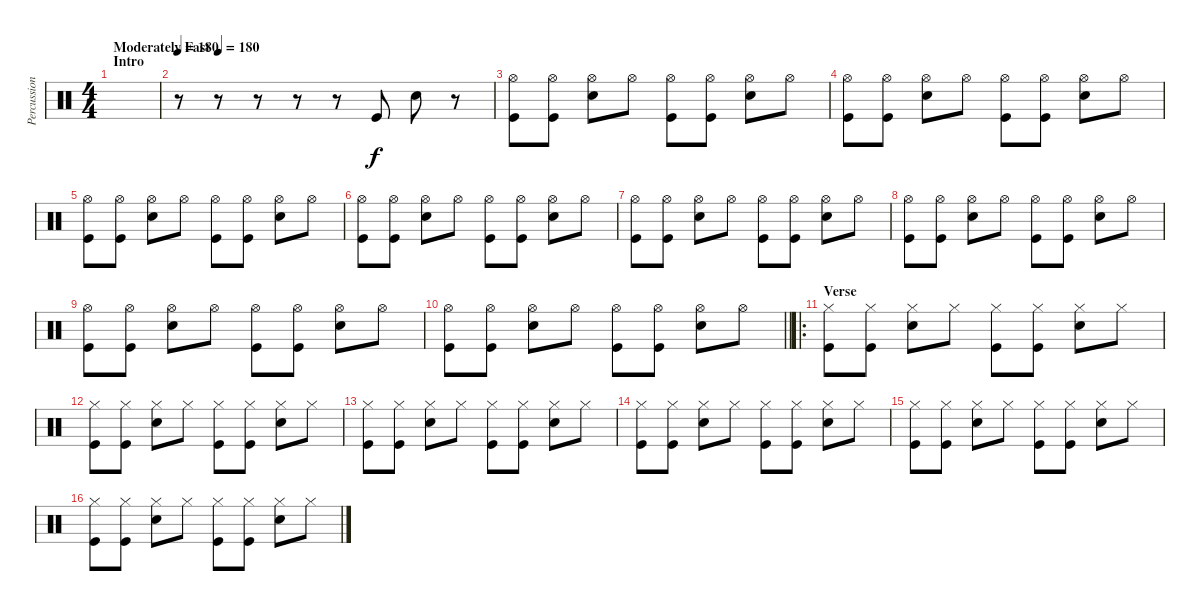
\track ("Percussion" "Percussion") {instrument percussion}
\staff {score}
\articulation defaults
\ts (4 4)
\section ("" "Intro")
\tempo (180 "Moderately Fast")
\tempo 160
\tempo (180 "Moderately Fast")
\clef neutral
\ks c
|
\tempo 180
r.8 r.8 r.8 r.8 r.8 "Kick (hit)".8 "Snare (hit) 2".8 r.8 |
("Hi-Hat (open)" "Kick (hit)").8 ("Hi-Hat (open)" "Kick (hit)").8 ("Hi-Hat (open)" "Snare (hit) 2").8 "Hi-Hat (open)".8 ("Hi-Hat (open)" "Kick (hit)").8 ("Hi-Hat (open)" "Kick (hit)").8 ("Hi-Hat (open)" "Snare (hit) 2").8 "Hi-Hat (open)".8 |
("Hi-Hat (open)" "Kick (hit)").8 ("Hi-Hat (open)" "Kick (hit)").8 ("Hi-Hat (open)" "Snare (hit) 2").8 "Hi-Hat (open)".8 ("Hi-Hat (open)" "Kick (hit)").8 ("Hi-Hat (open)" "Kick (hit)").8 ("Hi-Hat (open)" "Snare (hit) 2").8 "Hi-Hat (open)".8 |
("Hi-Hat (open)" "Kick (hit)").8 ("Hi-Hat (open)" "Kick (hit)").8 ("Hi-Hat (open)" "Snare (hit) 2").8 "Hi-Hat (open)".8 ("Hi-Hat (open)" "Kick (hit)").8 ("Hi-Hat (open)" "Kick (hit)").8 ("Hi-Hat (open)" "Snare (hit) 2").8 "Hi-Hat (open)".8 |
("Hi-Hat (open)" "Kick (hit)").8 ("Hi-Hat (open)" "Kick (hit)").8 ("Hi-Hat (open)" "Snare (hit) 2").8 "Hi-Hat (open)".8 ("Hi-Hat (open)" "Kick (hit)").8 ("Hi-Hat (open)" "Kick (hit)").8 ("Hi-Hat (open)" "Snare (hit) 2").8 "Hi-Hat (open)".8 |
("Hi-Hat (open)" "Kick (hit)").8 ("Hi-Hat (open)" "Kick (hit)").8 ("Hi-Hat (open)" "Snare (hit) 2").8 "Hi-Hat (open)".8 ("Hi-Hat (open)" "Kick (hit)").8 ("Hi-Hat (open)" "Kick (hit)").8 ("Hi-Hat (open)" "Snare (hit) 2").8 "Hi-Hat (open)".8 |
("Hi-Hat (open)" "Kick (hit)").8 ("Hi-Hat (open)" "Kick (hit)").8 ("Hi-Hat (open)" "Snare (hit) 2").8 "Hi-Hat (open)".8 ("Hi-Hat (open)" "Kick (hit)").8 ("Hi-Hat (open)" "Kick (hit)").8 ("Hi-Hat (open)" "Snare (hit) 2").8 "Hi-Hat (open)".8 |
("Hi-Hat (open)" "Kick (hit)").8 ("Hi-Hat (open)" "Kick (hit)").8 ("Hi-Hat (open)" "Snare (hit) 2").8 "Hi-Hat (open)".8 ("Hi-Hat (open)" "Kick (hit)").8 ("Hi-Hat (open)" "Kick (hit)").8 ("Hi-Hat (open)" "Snare (hit) 2").8 "Hi-Hat (open)".8 |
\barLineRight lightlight
("Hi-Hat (open)" "Kick (hit)").8 ("Hi-Hat (open)" "Kick (hit)").8 ("Hi-Hat (open)" "Snare (hit) 2").8 "Hi-Hat (open)".8 ("Hi-Hat (open)" "Kick (hit)").8 ("Hi-Hat (open)" "Kick (hit)").8 ("Hi-Hat (open)" "Snare (hit) 2").8 "Hi-Hat (open)".8 |
\ro
\section ("" "Verse")
("Hi-Hat (closed)" "Kick (hit)").8 ("Hi-Hat (closed)" "Kick (hit)").8 ("Hi-Hat (closed)" "Snare (hit) 2").8 "Hi-Hat (closed)".8 ("Hi-Hat (closed)" "Kick (hit)").8 ("Hi-Hat (closed)" "Kick (hit)").8 ("Hi-Hat (closed)" "Snare (hit) 2").8 "Hi-Hat (closed)".8 |
("Hi-Hat (closed)" "Kick (hit)").8 ("Hi-Hat (closed)" "Kick (hit)").8 ("Hi-Hat (closed)" "Snare (hit) 2").8 "Hi-Hat (closed)".8 ("Hi-Hat (closed)" "Kick (hit)").8 ("Hi-Hat (closed)" "Kick (hit)").8 ("Hi-Hat (closed)" "Snare (hit) 2").8 "Hi-Hat (closed)".8 |
("Hi-Hat (closed)" "Kick (hit)").8 ("Hi-Hat (closed)" "Kick (hit)").8 ("Hi-Hat (closed)" "Snare (hit) 2").8 "Hi-Hat (closed)".8 ("Hi-Hat (closed)" "Kick (hit)").8 ("Hi-Hat (closed)" "Kick (hit)").8 ("Hi-Hat (closed)" "Snare (hit) 2").8 "Hi-Hat (closed)".8 |
("Hi-Hat (closed)" "Kick (hit)").8 ("Hi-Hat (closed)" "Kick (hit)").8 ("Hi-Hat (closed)" "Snare (hit) 2").8 "Hi-Hat (closed)".8 ("Hi-Hat (closed)" "Kick (hit)").8 ("Hi-Hat (closed)" "Kick (hit)").8 ("Hi-Hat (closed)" "Snare (hit) 2").8 "Hi-Hat (closed)".8 |
("Hi-Hat (closed)" "Kick (hit)").8 ("Hi-Hat (closed)" "Kick (hit)").8 ("Hi-Hat (closed)" "Snare (hit) 2").8 "Hi-Hat (closed)".8 ("Hi-Hat (closed)" "Kick (hit)").8 ("Hi-Hat (closed)" "Kick (hit)").8 ("Hi-Hat (closed)" "Snare (hit) 2").8 "Hi-Hat (closed)".8 |
("Hi-Hat (closed)" "Kick (hit)").8 ("Hi-Hat (closed)" "Kick (hit)").8 ("Hi-Hat (closed)" "Snare (hit) 2").8 "Hi-Hat (closed)".8 ("Hi-Hat (closed)" "Kick (hit)").8 ("Hi-Hat (closed)" "Kick (hit)").8 ("Hi-Hat (closed)" "Snare (hit) 2").8 "Hi-Hat (closed)".8
